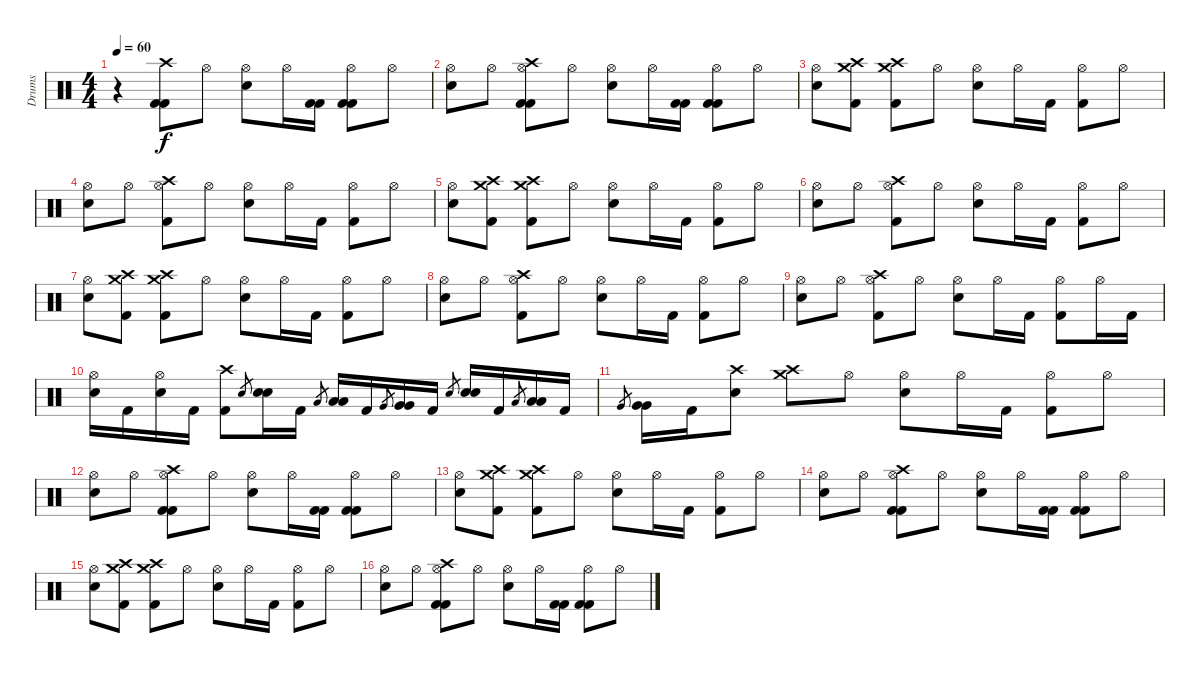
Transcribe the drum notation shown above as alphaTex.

\track ("Drums" "Drums") {instrument percussion}
\staff {score}
\articulation defaults
\ts (4 4)
\tempo 60
\clef neutral
\ks c
r.4{dy f} ("Crash high (hit)" "Kick (hit) 2" "Kick (hit) 2").8 "Hi-Hat (open)".8 ("Hi-Hat (open)" "Snare (hit) 2").8 "Hi-Hat (open)".16 ("Kick (hit) 2" "Kick (hit) 2").16 ("Hi-Hat (open)" "Kick (hit) 2" "Kick (hit) 2").8 "Hi-Hat (open)".8 |
("Hi-Hat (open)" "Snare (hit) 2").8 "Hi-Hat (open)".8 ("Hi-Hat (open)" "Crash high (hit)" "Kick (hit) 2" "Kick (hit) 2").8 "Hi-Hat (open)".8 ("Hi-Hat (open)" "Snare (hit) 2").8 "Hi-Hat (open)".16 ("Kick (hit) 2" "Kick (hit) 2").16 ("Hi-Hat (open)" "Kick (hit) 2" "Kick (hit) 2").8 "Hi-Hat (open)".8 |
("Hi-Hat (open)" "Snare (hit) 2").8 ("Crash high (hit)" "Crash medium (hit)" "Kick (hit) 2").8 ("Crash high (hit)" "Crash medium (hit)" "Kick (hit) 2").8 "Hi-Hat (open)".8 ("Hi-Hat (open)" "Snare (hit) 2").8 "Hi-Hat (open)".16 "Kick (hit) 2".16 ("Hi-Hat (open)" "Kick (hit) 2").8 "Hi-Hat (open)".8 |
("Hi-Hat (open)" "Snare (hit) 2").8 "Hi-Hat (open)".8 ("Hi-Hat (open)" "Crash high (hit)" "Kick (hit) 2").8 "Hi-Hat (open)".8 ("Hi-Hat (open)" "Snare (hit) 2").8 "Hi-Hat (open)".16 "Kick (hit) 2".16 ("Hi-Hat (open)" "Kick (hit) 2").8 "Hi-Hat (open)".8 |
("Hi-Hat (open)" "Snare (hit) 2").8 ("Crash high (hit)" "Crash medium (hit)" "Kick (hit) 2").8 ("Crash high (hit)" "Crash medium (hit)" "Kick (hit) 2").8 "Hi-Hat (open)".8 ("Hi-Hat (open)" "Snare (hit) 2").8 "Hi-Hat (open)".16 "Kick (hit) 2".16 ("Hi-Hat (open)" "Kick (hit) 2").8 "Hi-Hat (open)".8 |
("Hi-Hat (open)" "Snare (hit) 2").8 "Hi-Hat (open)".8 ("Hi-Hat (open)" "Crash high (hit)" "Kick (hit) 2").8 "Hi-Hat (open)".8 ("Hi-Hat (open)" "Snare (hit) 2").8 "Hi-Hat (open)".16 "Kick (hit) 2".16 ("Hi-Hat (open)" "Kick (hit) 2").8 "Hi-Hat (open)".8 |
("Hi-Hat (open)" "Snare (hit) 2").8 ("Crash high (hit)" "Crash medium (hit)" "Kick (hit) 2").8 ("Crash high (hit)" "Crash medium (hit)" "Kick (hit) 2").8 "Hi-Hat (open)".8 ("Hi-Hat (open)" "Snare (hit) 2").8 "Hi-Hat (open)".16 "Kick (hit) 2".16 ("Hi-Hat (open)" "Kick (hit) 2").8 "Hi-Hat (open)".8 |
("Hi-Hat (open)" "Snare (hit) 2").8 "Hi-Hat (open)".8 ("Hi-Hat (open)" "Crash high (hit)" "Kick (hit) 2").8 "Hi-Hat (open)".8 ("Hi-Hat (open)" "Snare (hit) 2").8 "Hi-Hat (open)".16 "Kick (hit) 2".16 ("Hi-Hat (open)" "Kick (hit) 2").8 "Hi-Hat (open)".8 |
("Hi-Hat (open)" "Snare (hit) 2").8 "Hi-Hat (open)".8 ("Hi-Hat (open)" "Crash high (hit)" "Kick (hit) 2").8 "Hi-Hat (open)".8 ("Hi-Hat (open)" "Snare (hit) 2").8 "Hi-Hat (open)".16 "Kick (hit) 2".16 ("Hi-Hat (open)" "Kick (hit) 2").8 "Hi-Hat (open)".16 "Kick (hit) 2".16 |
("Hi-Hat (open)" "Snare (hit) 2").16 "Kick (hit) 2".16 ("Hi-Hat (open)" "Snare (hit) 2").16 "Kick (hit) 2".16 ("Crash high (hit)" "Kick (hit) 2").8 "Snare (hit) 2".8{gr} ("Snare (hit) 2" "Snare (hit) 2").16 "Kick (hit) 2".16 "Low Tom (hit)".8{gr} ("Low Tom (hit)" "Low Tom (hit)").16 "Kick (hit) 2".16 "Very Low Tom (hit)".8{gr} ("Very Low Tom (hit)" "Very Low Tom (hit)").16 "Kick (hit) 2".16 "Snare (hit) 2".8{gr} ("Snare (hit) 2" "Snare (hit) 2").16 "Kick (hit) 2".16 "Low Tom (hit)".8{gr} ("Low Tom (hit)" "Low Tom (hit)").16 "Kick (hit) 2".16 |
"Very Low Tom (hit)".8{gr} ("Very Low Tom (hit)" "Very Low Tom (hit)").16 "Kick (hit) 2".16 ("Crash high (hit)" "Snare (hit) 2").8 ("Crash high (hit)" "Crash medium (hit)").8 "Hi-Hat (open)".8 ("Hi-Hat (open)" "Snare (hit) 2").8 "Hi-Hat (open)".16 "Kick (hit) 2".16 ("Hi-Hat (open)" "Kick (hit) 2").8 "Hi-Hat (open)".8 |
("Hi-Hat (open)" "Snare (hit) 2").8 "Hi-Hat (open)".8 ("Hi-Hat (open)" "Crash high (hit)" "Kick (hit) 2" "Kick (hit) 2").8 "Hi-Hat (open)".8 ("Hi-Hat (open)" "Snare (hit) 2").8 "Hi-Hat (open)".16 ("Kick (hit) 2" "Kick (hit) 2").16 ("Hi-Hat (open)" "Kick (hit) 2" "Kick (hit) 2").8 "Hi-Hat (open)".8 |
("Hi-Hat (open)" "Snare (hit) 2").8 ("Crash high (hit)" "Crash medium (hit)" "Kick (hit) 2").8 ("Crash high (hit)" "Crash medium (hit)" "Kick (hit) 2").8 "Hi-Hat (open)".8 ("Hi-Hat (open)" "Snare (hit) 2").8 "Hi-Hat (open)".16 "Kick (hit) 2".16 ("Hi-Hat (open)" "Kick (hit) 2").8 "Hi-Hat (open)".8 |
("Hi-Hat (open)" "Snare (hit) 2").8 "Hi-Hat (open)".8 ("Hi-Hat (open)" "Crash high (hit)" "Kick (hit) 2" "Kick (hit) 2").8 "Hi-Hat (open)".8 ("Hi-Hat (open)" "Snare (hit) 2").8 "Hi-Hat (open)".16 ("Kick (hit) 2" "Kick (hit) 2").16 ("Hi-Hat (open)" "Kick (hit) 2" "Kick (hit) 2").8 "Hi-Hat (open)".8 |
("Hi-Hat (open)" "Snare (hit) 2").8 ("Crash high (hit)" "Crash medium (hit)" "Kick (hit) 2").8 ("Crash high (hit)" "Crash medium (hit)" "Kick (hit) 2").8 "Hi-Hat (open)".8 ("Hi-Hat (open)" "Snare (hit) 2").8 "Hi-Hat (open)".16 "Kick (hit) 2".16 ("Hi-Hat (open)" "Kick (hit) 2").8 "Hi-Hat (open)".8 |
("Hi-Hat (open)" "Snare (hit) 2").8 "Hi-Hat (open)".8 ("Hi-Hat (open)" "Crash high (hit)" "Kick (hit) 2" "Kick (hit) 2").8 "Hi-Hat (open)".8 ("Hi-Hat (open)" "Snare (hit) 2").8 "Hi-Hat (open)".16 ("Kick (hit) 2" "Kick (hit) 2").16 ("Hi-Hat (open)" "Kick (hit) 2" "Kick (hit) 2").8 "Hi-Hat (open)".8
